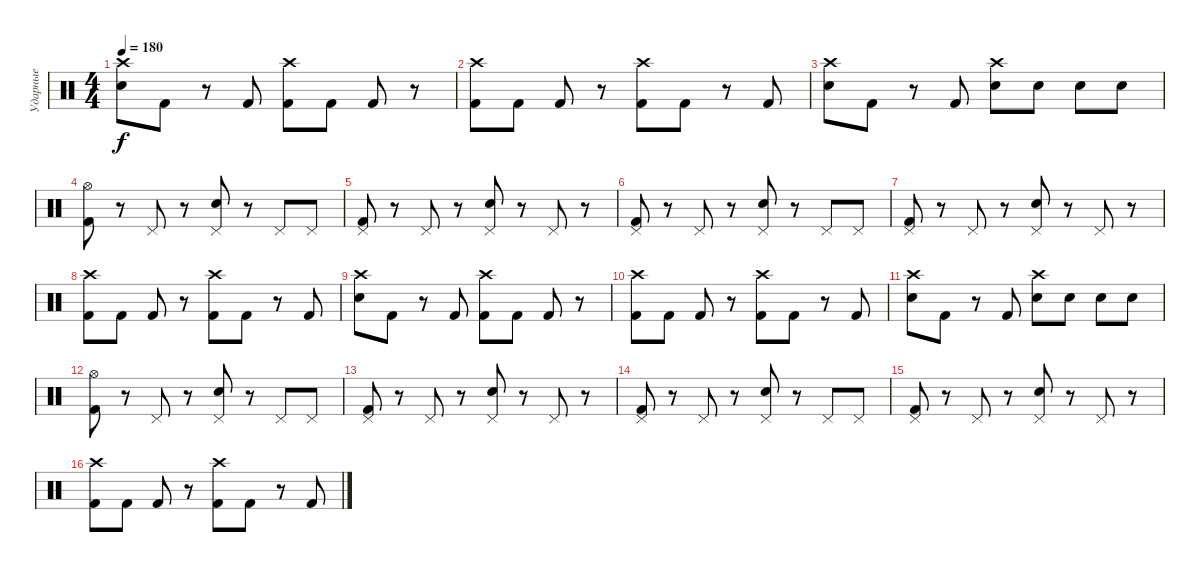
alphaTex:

\track ("Ударные" "Ударные") {instrument percussion}
\staff {score}
\articulation defaults
\ts (4 4)
\tempo 180
\clef neutral
\ks c
("Crash high (hit)" "Snare (hit) 2").8{dy f} "Kick (hit) 2".8 r.8 "Kick (hit) 2".8 ("Crash high (hit)" "Kick (hit) 2").8 "Kick (hit) 2".8 "Kick (hit) 2".8 r.8 |
("Crash high (hit)" "Kick (hit) 2").8 "Kick (hit) 2".8 "Kick (hit) 2".8 r.8 ("Crash high (hit)" "Kick (hit) 2").8 "Kick (hit) 2".8 r.8 "Kick (hit) 2".8 |
("Crash high (hit)" "Snare (hit) 2").8 "Kick (hit) 2".8 r.8 "Kick (hit) 2".8 ("Crash high (hit)" "Snare (hit) 2").8 "Snare (hit) 2".8 "Snare (hit) 2".8 "Snare (hit) 2".8 |
("Hi-Hat (open)" "Kick (hit) 2").8 r.8 "Pedal Hi-Hat (hit)".8 r.8 ("Pedal Hi-Hat (hit)" "Snare (hit) 2").8 r.8 "Pedal Hi-Hat (hit)".8 "Pedal Hi-Hat (hit)".8 |
("Pedal Hi-Hat (hit)" "Kick (hit) 2").8 r.8 "Pedal Hi-Hat (hit)".8 r.8 ("Pedal Hi-Hat (hit)" "Snare (hit) 2").8 r.8 "Pedal Hi-Hat (hit)".8 r.8 |
("Pedal Hi-Hat (hit)" "Kick (hit) 2").8 r.8 "Pedal Hi-Hat (hit)".8 r.8 ("Pedal Hi-Hat (hit)" "Snare (hit) 2").8 r.8 "Pedal Hi-Hat (hit)".8 "Pedal Hi-Hat (hit)".8 |
("Pedal Hi-Hat (hit)" "Kick (hit) 2").8 r.8 "Pedal Hi-Hat (hit)".8 r.8 ("Pedal Hi-Hat (hit)" "Snare (hit) 2").8 r.8 "Pedal Hi-Hat (hit)".8 r.8 |
("Crash high (hit)" "Kick (hit) 2").8 "Kick (hit) 2".8 "Kick (hit) 2".8 r.8 ("Crash high (hit)" "Kick (hit) 2").8 "Kick (hit) 2".8 r.8 "Kick (hit) 2".8 |
("Crash high (hit)" "Snare (hit) 2").8 "Kick (hit) 2".8 r.8 "Kick (hit) 2".8 ("Crash high (hit)" "Kick (hit) 2").8 "Kick (hit) 2".8 "Kick (hit) 2".8 r.8 |
("Crash high (hit)" "Kick (hit) 2").8 "Kick (hit) 2".8 "Kick (hit) 2".8 r.8 ("Crash high (hit)" "Kick (hit) 2").8 "Kick (hit) 2".8 r.8 "Kick (hit) 2".8 |
("Crash high (hit)" "Snare (hit) 2").8 "Kick (hit) 2".8 r.8 "Kick (hit) 2".8 ("Crash high (hit)" "Snare (hit) 2").8 "Snare (hit) 2".8 "Snare (hit) 2".8 "Snare (hit) 2".8 |
("Hi-Hat (open)" "Kick (hit) 2").8 r.8 "Pedal Hi-Hat (hit)".8 r.8 ("Pedal Hi-Hat (hit)" "Snare (hit) 2").8 r.8 "Pedal Hi-Hat (hit)".8 "Pedal Hi-Hat (hit)".8 |
("Pedal Hi-Hat (hit)" "Kick (hit) 2").8 r.8 "Pedal Hi-Hat (hit)".8 r.8 ("Pedal Hi-Hat (hit)" "Snare (hit) 2").8 r.8 "Pedal Hi-Hat (hit)".8 r.8 |
("Pedal Hi-Hat (hit)" "Kick (hit) 2").8 r.8 "Pedal Hi-Hat (hit)".8 r.8 ("Pedal Hi-Hat (hit)" "Snare (hit) 2").8 r.8 "Pedal Hi-Hat (hit)".8 "Pedal Hi-Hat (hit)".8 |
("Pedal Hi-Hat (hit)" "Kick (hit) 2").8 r.8 "Pedal Hi-Hat (hit)".8 r.8 ("Pedal Hi-Hat (hit)" "Snare (hit) 2").8 r.8 "Pedal Hi-Hat (hit)".8 r.8 |
("Crash high (hit)" "Kick (hit) 2").8 "Kick (hit) 2".8 "Kick (hit) 2".8 r.8 ("Crash high (hit)" "Kick (hit) 2").8 "Kick (hit) 2".8 r.8 "Kick (hit) 2".8
